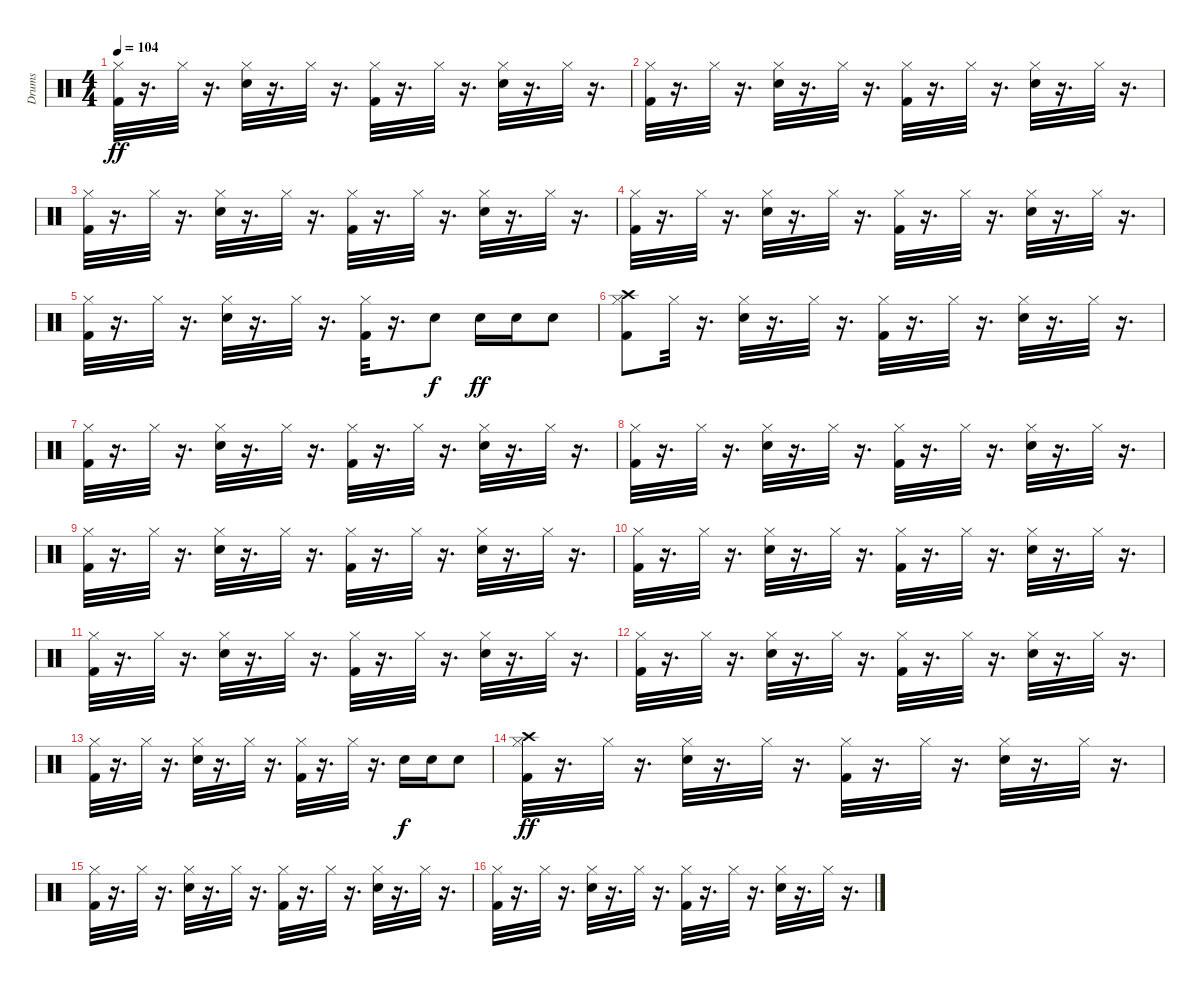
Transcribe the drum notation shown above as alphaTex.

\track ("Drums" "Drums") {instrument percussion}
\staff {score}
\articulation defaults
\ts (4 4)
\tempo 104
\clef neutral
\ks c
("Kick (hit) 2" "Hi-Hat (closed)").32{dy ff volume 12 balance 8} r.16{d} "Hi-Hat (closed)".32 r.16{d} ("Snare (hit) 2" "Hi-Hat (closed)").32 r.16{d} "Hi-Hat (closed)".32 r.16{d} ("Kick (hit) 2" "Hi-Hat (closed)").32 r.16{d} "Hi-Hat (closed)".32 r.16{d} ("Snare (hit) 2" "Hi-Hat (closed)").32 r.16{d} "Hi-Hat (closed)".32 r.16{d} |
("Kick (hit) 2" "Hi-Hat (closed)").32{volume 12 balance 8} r.16{d} "Hi-Hat (closed)".32 r.16{d} ("Snare (hit) 2" "Hi-Hat (closed)").32 r.16{d} "Hi-Hat (closed)".32 r.16{d} ("Kick (hit) 2" "Hi-Hat (closed)").32 r.16{d} "Hi-Hat (closed)".32 r.16{d} ("Snare (hit) 2" "Hi-Hat (closed)").32 r.16{d} "Hi-Hat (closed)".32 r.16{d} |
("Kick (hit) 2" "Hi-Hat (closed)").32{volume 12 balance 8} r.16{d} "Hi-Hat (closed)".32 r.16{d} ("Snare (hit) 2" "Hi-Hat (closed)").32 r.16{d} "Hi-Hat (closed)".32 r.16{d} ("Kick (hit) 2" "Hi-Hat (closed)").32 r.16{d} "Hi-Hat (closed)".32 r.16{d} ("Snare (hit) 2" "Hi-Hat (closed)").32 r.16{d} "Hi-Hat (closed)".32 r.16{d} |
("Kick (hit) 2" "Hi-Hat (closed)").32{volume 12 balance 8} r.16{d} "Hi-Hat (closed)".32 r.16{d} ("Snare (hit) 2" "Hi-Hat (closed)").32 r.16{d} "Hi-Hat (closed)".32 r.16{d} ("Kick (hit) 2" "Hi-Hat (closed)").32 r.16{d} "Hi-Hat (closed)".32 r.16{d} ("Snare (hit) 2" "Hi-Hat (closed)").32 r.16{d} "Hi-Hat (closed)".32 r.16{d} |
("Kick (hit) 2" "Hi-Hat (closed)").32{volume 12 balance 8} r.16{d} "Hi-Hat (closed)".32 r.16{d} ("Snare (hit) 2" "Hi-Hat (closed)").32 r.16{d} "Hi-Hat (closed)".32 r.16{d} ("Kick (hit) 2" "Hi-Hat (closed)").32 r.16{d} "Snare (hit) 2".8{dy f} "Snare (hit) 2".16{dy ff} "Snare (hit) 2".16 "Snare (hit) 2".8 |
("Kick (hit) 2" "Hi-Hat (closed)" "Crash high (hit)").8{volume 12 balance 8} "Hi-Hat (closed)".32 r.16{d} ("Snare (hit) 2" "Hi-Hat (closed)").32 r.16{d} "Hi-Hat (closed)".32 r.16{d} ("Kick (hit) 2" "Hi-Hat (closed)").32 r.16{d} "Hi-Hat (closed)".32 r.16{d} ("Snare (hit) 2" "Hi-Hat (closed)").32 r.16{d} "Hi-Hat (closed)".32 r.16{d} |
("Kick (hit) 2" "Hi-Hat (closed)").32{volume 12 balance 8} r.16{d} "Hi-Hat (closed)".32 r.16{d} ("Snare (hit) 2" "Hi-Hat (closed)").32 r.16{d} "Hi-Hat (closed)".32 r.16{d} ("Kick (hit) 2" "Hi-Hat (closed)").32 r.16{d} "Hi-Hat (closed)".32 r.16{d} ("Snare (hit) 2" "Hi-Hat (closed)").32 r.16{d} "Hi-Hat (closed)".32 r.16{d} |
("Kick (hit) 2" "Hi-Hat (closed)").32{volume 12 balance 8} r.16{d} "Hi-Hat (closed)".32 r.16{d} ("Snare (hit) 2" "Hi-Hat (closed)").32 r.16{d} "Hi-Hat (closed)".32 r.16{d} ("Kick (hit) 2" "Hi-Hat (closed)").32 r.16{d} "Hi-Hat (closed)".32 r.16{d} ("Snare (hit) 2" "Hi-Hat (closed)").32 r.16{d} "Hi-Hat (closed)".32 r.16{d} |
("Kick (hit) 2" "Hi-Hat (closed)").32{volume 12 balance 8} r.16{d} "Hi-Hat (closed)".32 r.16{d} ("Snare (hit) 2" "Hi-Hat (closed)").32 r.16{d} "Hi-Hat (closed)".32 r.16{d} ("Kick (hit) 2" "Hi-Hat (closed)").32 r.16{d} "Hi-Hat (closed)".32 r.16{d} ("Snare (hit) 2" "Hi-Hat (closed)").32 r.16{d} "Hi-Hat (closed)".32 r.16{d} |
("Kick (hit) 2" "Hi-Hat (closed)").32{volume 12 balance 8} r.16{d} "Hi-Hat (closed)".32 r.16{d} ("Snare (hit) 2" "Hi-Hat (closed)").32 r.16{d} "Hi-Hat (closed)".32 r.16{d} ("Kick (hit) 2" "Hi-Hat (closed)").32 r.16{d} "Hi-Hat (closed)".32 r.16{d} ("Snare (hit) 2" "Hi-Hat (closed)").32 r.16{d} "Hi-Hat (closed)".32 r.16{d} |
("Kick (hit) 2" "Hi-Hat (closed)").32{volume 12 balance 8} r.16{d} "Hi-Hat (closed)".32 r.16{d} ("Snare (hit) 2" "Hi-Hat (closed)").32 r.16{d} "Hi-Hat (closed)".32 r.16{d} ("Kick (hit) 2" "Hi-Hat (closed)").32 r.16{d} "Hi-Hat (closed)".32 r.16{d} ("Snare (hit) 2" "Hi-Hat (closed)").32 r.16{d} "Hi-Hat (closed)".32 r.16{d} |
("Kick (hit) 2" "Hi-Hat (closed)").32{volume 12 balance 8} r.16{d} "Hi-Hat (closed)".32 r.16{d} ("Snare (hit) 2" "Hi-Hat (closed)").32 r.16{d} "Hi-Hat (closed)".32 r.16{d} ("Kick (hit) 2" "Hi-Hat (closed)").32 r.16{d} "Hi-Hat (closed)".32 r.16{d} ("Snare (hit) 2" "Hi-Hat (closed)").32 r.16{d} "Hi-Hat (closed)".32 r.16{d} |
("Kick (hit) 2" "Hi-Hat (closed)").32{volume 12 balance 8} r.16{d} "Hi-Hat (closed)".32 r.16{d} ("Snare (hit) 2" "Hi-Hat (closed)").32 r.16{d} "Hi-Hat (closed)".32 r.16{d} ("Kick (hit) 2" "Hi-Hat (closed)").32 r.16{d} "Hi-Hat (closed)".32 r.16{d} "Snare (hit) 2".16{dy f} "Snare (hit) 2".16 "Snare (hit) 2".8 |
("Kick (hit) 2" "Hi-Hat (closed)" "Crash high (hit)").32{dy ff volume 12 balance 8} r.16{d} "Hi-Hat (closed)".32 r.16{d} ("Snare (hit) 2" "Hi-Hat (closed)").32 r.16{d} "Hi-Hat (closed)".32 r.16{d} ("Kick (hit) 2" "Hi-Hat (closed)").32 r.16{d} "Hi-Hat (closed)".32 r.16{d} ("Snare (hit) 2" "Hi-Hat (closed)").32 r.16{d} "Hi-Hat (closed)".32 r.16{d} |
("Kick (hit) 2" "Hi-Hat (closed)").32{volume 12 balance 8} r.16{d} "Hi-Hat (closed)".32 r.16{d} ("Snare (hit) 2" "Hi-Hat (closed)").32 r.16{d} "Hi-Hat (closed)".32 r.16{d} ("Kick (hit) 2" "Hi-Hat (closed)").32 r.16{d} "Hi-Hat (closed)".32 r.16{d} ("Snare (hit) 2" "Hi-Hat (closed)").32 r.16{d} "Hi-Hat (closed)".32 r.16{d} |
("Kick (hit) 2" "Hi-Hat (closed)").32{volume 12 balance 8} r.16{d} "Hi-Hat (closed)".32 r.16{d} ("Snare (hit) 2" "Hi-Hat (closed)").32 r.16{d} "Hi-Hat (closed)".32 r.16{d} ("Kick (hit) 2" "Hi-Hat (closed)").32 r.16{d} "Hi-Hat (closed)".32 r.16{d} ("Snare (hit) 2" "Hi-Hat (closed)").32 r.16{d} "Hi-Hat (closed)".32 r.16{d}
